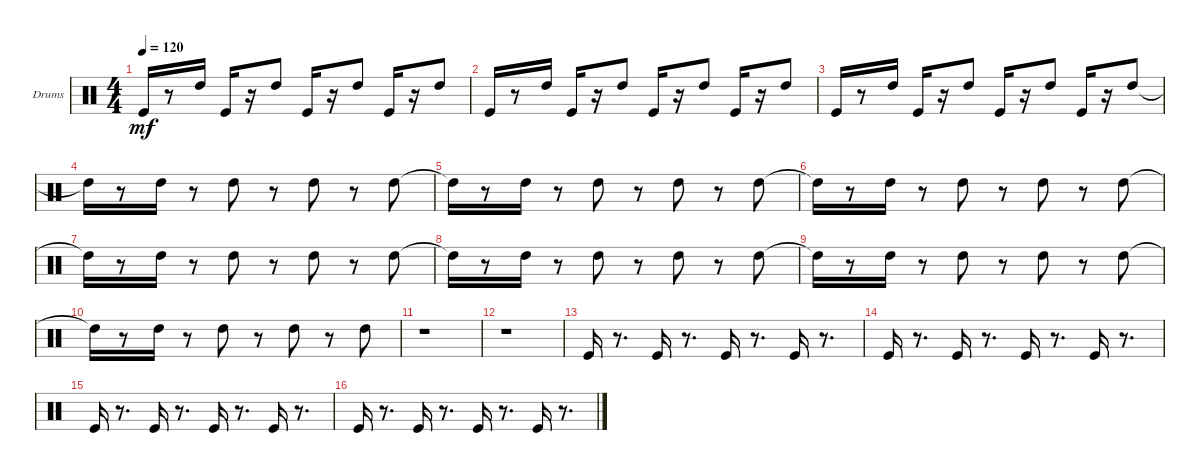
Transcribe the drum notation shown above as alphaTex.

\bracketExtendMode groupsimilarinstruments
\firstSystemTrackNameOrientation horizontal
\otherSystemsTrackNameOrientation horizontal
\track ("Drums" "Drums") {instrument percussion}
\staff {score}
\articulation defaults
\ts (4 4)
\tempo 120
\clef neutral
\ks c "Kick (hit)".16{dy mf}
r.8 "High Tom (hit)".16 "Kick (hit)".16 r.16 "High Tom (hit)".8 "Kick (hit)".16 r.16 "High Tom (hit)".8 "Kick (hit)".16 r.16 "High Tom (hit)".8 |
"Kick (hit)".16 r.8 "High Tom (hit)".16 "Kick (hit)".16 r.16 "High Tom (hit)".8 "Kick (hit)".16 r.16 "High Tom (hit)".8 "Kick (hit)".16 r.16 "High Tom (hit)".8 |
"Kick (hit)".16 r.8 "High Tom (hit)".16 "Kick (hit)".16 r.16 "High Tom (hit)".8 "Kick (hit)".16 r.16 "High Tom (hit)".8 "Kick (hit)".16 r.16 "High Tom (hit)".8 |
"High Tom (hit)"{t}.16 r.8 "High Tom (hit)".16 r.8 "High Tom (hit)".8 r.8 "High Tom (hit)".8 r.8 "High Tom (hit)".8 |
"High Tom (hit)"{t}.16 r.8 "High Tom (hit)".16 r.8 "High Tom (hit)".8 r.8 "High Tom (hit)".8 r.8 "High Tom (hit)".8 |
"High Tom (hit)"{t}.16 r.8 "High Tom (hit)".16 r.8 "High Tom (hit)".8 r.8 "High Tom (hit)".8 r.8 "High Tom (hit)".8 |
"High Tom (hit)"{t}.16 r.8 "High Tom (hit)".16 r.8 "High Tom (hit)".8 r.8 "High Tom (hit)".8 r.8 "High Tom (hit)".8 |
"High Tom (hit)"{t}.16 r.8 "High Tom (hit)".16 r.8 "High Tom (hit)".8 r.8 "High Tom (hit)".8 r.8 "High Tom (hit)".8 |
"High Tom (hit)"{t}.16 r.8 "High Tom (hit)".16 r.8 "High Tom (hit)".8 r.8 "High Tom (hit)".8 r.8 "High Tom (hit)".8 |
"High Tom (hit)"{t}.16 r.8 "High Tom (hit)".16 r.8 "High Tom (hit)".8 r.8 "High Tom (hit)".8 r.8 "High Tom (hit)".8 |
r.1 |
r.1 |
"Kick (hit)".16 r.8{d} "Kick (hit)".16 r.8{d} "Kick (hit)".16 r.8{d} "Kick (hit)".16 r.8{d} |
"Kick (hit)".16 r.8{d} "Kick (hit)".16 r.8{d} "Kick (hit)".16 r.8{d} "Kick (hit)".16 r.8{d} |
"Kick (hit)".16 r.8{d} "Kick (hit)".16 r.8{d} "Kick (hit)".16 r.8{d} "Kick (hit)".16 r.8{d} |
"Kick (hit)".16 r.8{d} "Kick (hit)".16 r.8{d} "Kick (hit)".16 r.8{d} "Kick (hit)".16 r.8{d}
